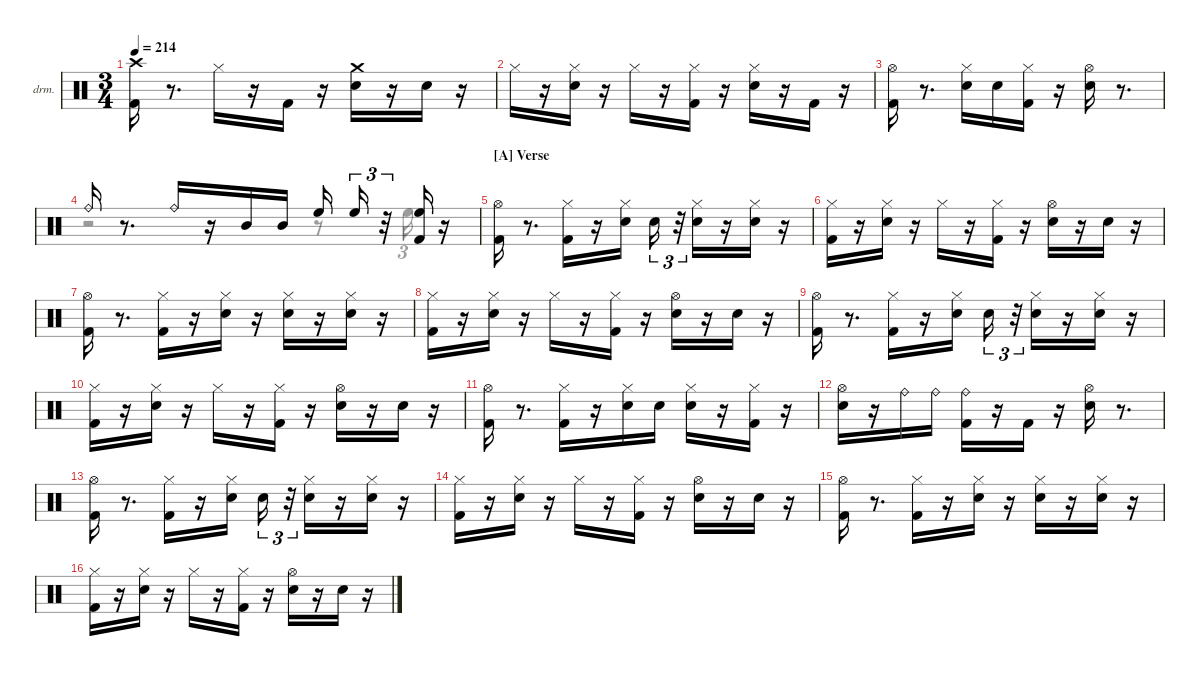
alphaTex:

\hideDynamics
\bracketExtendMode nobrackets
\firstSystemTrackNameOrientation horizontal
\otherSystemsTrackNameOrientation horizontal
\track ("EZdrummer 3" "drm.") {instrument percussion}
\staff {score}
\articulation defaults
\voice
\ts (3 4)
\tempo 214
\clef neutral
\ks aminor
("Kick (hit) 2" "Crash high (hit)"{acc #}).16{dy fff beam Down} r.8{d beam Down} "Hi-Hat (closed)"{acc #}.16{dy f beam Down} r.16{beam Down} "Kick (hit) 2".16{beam Up} r.16{beam Up} ("Snare (hit) 2" "Crash medium (hit)").16{beam Down} r.16{beam Down} "Snare (hit) 2".16{dy pp beam Down} r.16{beam Down} |
"Hi-Hat (closed)"{acc #}.16{dy ff beam Down} r.16{beam Down} ("Snare (hit) 2" "Hi-Hat (closed)"{acc #}).16{dy f beam Down} r.16{beam Down} "Hi-Hat (closed)"{acc #}.16{beam Down} r.16{beam Down} ("Kick (hit) 2" "Hi-Hat (closed)"{acc #}).16{beam Down} r.16{beam Down} ("Snare (hit) 2" "Hi-Hat (closed)"{acc #}).16{beam Down} r.16{beam Down} "Kick (hit) 2".16{dy pp beam Up} r.16{beam Up} |
("Kick (hit) 2" "Hi-Hat (open)"{acc #}).16{dy ff beam Down} r.8{d beam Down} ("Snare (hit) 2" "Hi-Hat (closed)"{acc #}).16{dy p beam Down} "Snare (hit) 2".16{beam Down} ("Kick (hit) 2" "Hi-Hat (closed)"{acc #}).16{dy mf beam Down} r.16{beam Down} ("Snare (hit) 2" "Hi-Hat (open)"{acc #}).16{dy fff beam Down} r.8{d beam Down} |
"Ride (bell)".16{dy ff beam Up} r.8{d beam Up} "Ride (bell)".16{dy f beam Up} r.16{beam Up} "Mid Tom (hit)".16{beam Up} "Mid Tom (hit)".16{dy p beam Up} "High Floor Tom (hit)".16{dy fff beam Up} "High Floor Tom (hit)".16{tu (3 2) dy ppp beam Up} r.32{tu (3 2) beam Up} ("Kick (hit) 2" "High Floor Tom (hit)").16{dy mf beam Up} r.16{beam Up} |
\section ("A" "Verse")
("Kick (hit) 2" "Hi-Hat (open)"{acc #}).16{dy ff beam Down} r.8{d beam Down} ("Kick (hit) 2" "Hi-Hat (closed)"{acc #}).16{dy mf beam Down} r.16{beam Down} ("Snare (hit) 2" "Hi-Hat (closed)"{acc #}).16{dy pp beam Down} "Snare (hit) 2".16{tu (3 2) dy p beam Down} r.32{tu (3 2) beam Down} ("Snare (hit) 2" "Hi-Hat (closed)"{acc #}).16{dy ppp beam Down} r.16{beam Down} ("Snare (hit) 2" "Hi-Hat (closed)"{acc #}).16{dy pp beam Down} r.16{beam Down} |
("Kick (hit) 2" "Hi-Hat (closed)"{acc #}).16{dy mf beam Down} r.16{beam Down} ("Snare (hit) 2" "Hi-Hat (closed)"{acc #}).16{dy f beam Down} r.16{beam Down} "Hi-Hat (closed)"{acc #}.16{beam Down} r.16{beam Down} ("Kick (hit) 2" "Hi-Hat (closed)"{acc #}).16{beam Down} r.16{beam Down} ("Snare (hit) 2" "Hi-Hat (open)"{acc #}).16{beam Down} r.16{beam Down} "Snare (hit) 2".16{dy pp beam Down} r.16{beam Down} |
("Kick (hit) 2" "Hi-Hat (open)"{acc #}).16{dy ff beam Down} r.8{d beam Down} ("Kick (hit) 2" "Hi-Hat (closed)"{acc #}).16{dy f beam Down} r.16{beam Down} ("Snare (hit) 2" "Hi-Hat (closed)"{acc #}).16{beam Down} r.16{beam Down} ("Snare (hit) 2" "Hi-Hat (closed)"{acc #}).16{dy ppp beam Down} r.16{beam Down} ("Snare (hit) 2" "Hi-Hat (closed)"{acc #}).16{dy pp beam Down} r.16{beam Down} |
("Kick (hit) 2" "Hi-Hat (closed)"{acc #}).16{dy mf beam Down} r.16{beam Down} ("Snare (hit) 2" "Hi-Hat (closed)"{acc #}).16{dy mp beam Down} r.16{beam Down} "Hi-Hat (closed)"{acc #}.16{dy f beam Down} r.16{beam Down} ("Kick (hit) 2" "Hi-Hat (closed)"{acc #}).16{beam Down} r.16{beam Down} ("Snare (hit) 2" "Hi-Hat (open)"{acc #}).16{beam Down} r.16{beam Down} "Snare (hit) 2".16{dy pp beam Down} r.16{beam Down} |
("Kick (hit) 2" "Hi-Hat (open)"{acc #}).16{dy ff beam Down} r.8{d beam Down} ("Kick (hit) 2" "Hi-Hat (closed)"{acc #}).16{dy mf beam Down} r.16{beam Down} ("Snare (hit) 2" "Hi-Hat (closed)"{acc #}).16{dy f beam Down} "Snare (hit) 2".16{tu (3 2) dy p beam Down} r.32{tu (3 2) beam Down} ("Snare (hit) 2" "Hi-Hat (closed)"{acc #}).16{dy ppp beam Down} r.16{beam Down} ("Snare (hit) 2" "Hi-Hat (closed)"{acc #}).16{dy pp beam Down} r.16{beam Down} |
("Kick (hit) 2" "Hi-Hat (closed)"{acc #}).16{dy mf beam Down} r.16{beam Down} ("Snare (hit) 2" "Hi-Hat (closed)"{acc #}).16{dy pp beam Down} r.16{beam Down} "Hi-Hat (closed)"{acc #}.16{dy f beam Down} r.16{beam Down} ("Kick (hit) 2" "Hi-Hat (closed)"{acc #}).16{beam Down} r.16{beam Down} ("Snare (hit) 2" "Hi-Hat (open)"{acc #}).16{beam Down} r.16{beam Down} "Snare (hit) 2".16{dy pp beam Down} r.16{beam Down} |
("Kick (hit) 2" "Hi-Hat (open)"{acc #}).16{dy ff beam Down} r.8{d beam Down} ("Kick (hit) 2" "Hi-Hat (closed)"{acc #}).16{dy f beam Down} r.16{beam Down} ("Snare (hit) 2" "Hi-Hat (closed)"{acc #}).16{beam Down} "Snare (hit) 2".16{dy pp beam Down} ("Snare (hit) 2" "Hi-Hat (closed)"{acc #}).16{dy ppp beam Down} r.16{beam Down} ("Kick (hit) 2" "Hi-Hat (closed)"{acc #}).16{dy mf beam Down} r.16{beam Down} |
("Snare (hit) 2" "Hi-Hat (open)"{acc #}).16{dy fff beam Down} r.16{beam Down} "Ride (bell)".16{dy ff beam Down} "Ride (bell)".16{dy f beam Down} ("Kick (hit) 2" "Ride (bell)").16{dy mp beam Down} r.16{beam Down} "Kick (hit) 2".16{dy ff beam Up} r.16{beam Up} ("Snare (hit) 2" "Hi-Hat (open)"{acc #}).16{dy fff beam Down} r.8{d beam Down} |
("Kick (hit) 2" "Hi-Hat (open)"{acc #}).16{dy ff beam Down} r.8{d beam Down} ("Kick (hit) 2" "Hi-Hat (closed)"{acc #}).16{dy mf beam Down} r.16{beam Down} ("Snare (hit) 2" "Hi-Hat (closed)"{acc #}).16{dy f beam Down} "Snare (hit) 2".16{tu (3 2) dy p beam Down} r.32{tu (3 2) beam Down} ("Snare (hit) 2" "Hi-Hat (closed)"{acc #}).16{dy ppp beam Down} r.16{beam Down} ("Snare (hit) 2" "Hi-Hat (closed)"{acc #}).16{dy pp beam Down} r.16{beam Down} |
("Kick (hit) 2" "Hi-Hat (closed)"{acc #}).16{dy mf beam Down} r.16{beam Down} ("Snare (hit) 2" "Hi-Hat (closed)"{acc #}).16{dy f beam Down} r.16{beam Down} "Hi-Hat (closed)"{acc #}.16{beam Down} r.16{beam Down} ("Kick (hit) 2" "Hi-Hat (closed)"{acc #}).16{beam Down} r.16{beam Down} ("Snare (hit) 2" "Hi-Hat (open)"{acc #}).16{beam Down} r.16{beam Down} "Snare (hit) 2".16{dy pp beam Down} r.16{beam Down} |
("Kick (hit) 2" "Hi-Hat (open)"{acc #}).16{dy ff beam Down} r.8{d beam Down} ("Kick (hit) 2" "Hi-Hat (closed)"{acc #}).16{dy f beam Down} r.16{beam Down} ("Snare (hit) 2" "Hi-Hat (closed)"{acc #}).16{beam Down} r.16{beam Down} ("Snare (hit) 2" "Hi-Hat (closed)"{acc #}).16{dy ppp beam Down} r.16{beam Down} ("Snare (hit) 2" "Hi-Hat (closed)"{acc #}).16{dy pp beam Down} r.16{beam Down} |
("Kick (hit) 2" "Hi-Hat (closed)"{acc #}).16{dy mf beam Down} r.16{beam Down} ("Snare (hit) 2" "Hi-Hat (closed)"{acc #}).16{dy mp beam Down} r.16{beam Down} "Hi-Hat (closed)"{acc #}.16{dy f beam Down} r.16{beam Down} ("Kick (hit) 2" "Hi-Hat (closed)"{acc #}).16{beam Down} r.16{beam Down} ("Snare (hit) 2" "Hi-Hat (open)"{acc #}).16{beam Down} r.16{beam Down} "Snare (hit) 2".16{dy pp beam Down} r.16{beam Down}
\voice
\clef neutral
\ottava regular
\simile none
\ks aminor
|
|
|
r.2{beam Down} r.8{beam Down} "High Floor Tom (hit)".16{tu (3 2) dy ppp beam Down} |
|
|
|
|
|
|
|
|
|
|
|
